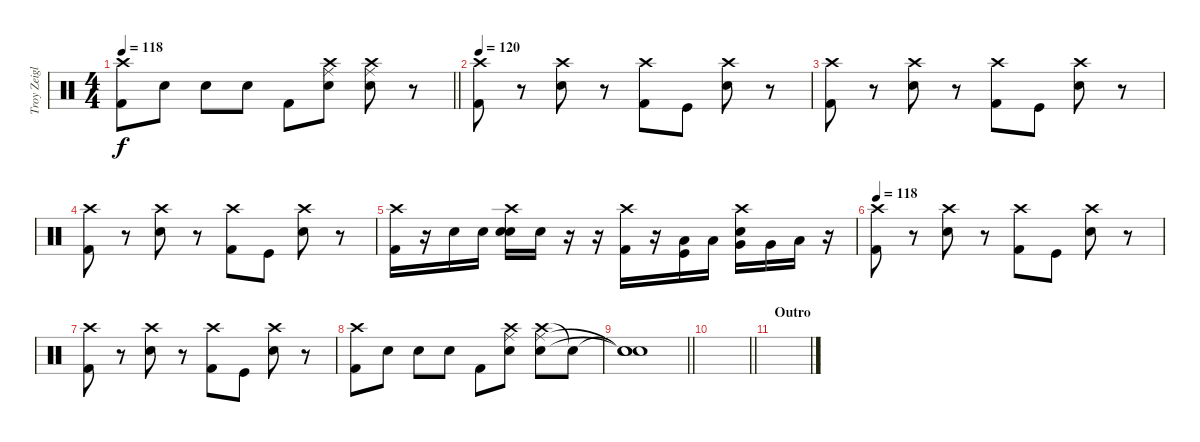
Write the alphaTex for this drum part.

\track ("Troy Zeigler (Drums)" "Troy Zeigl") {instrument percussion}
\staff {score}
\articulation defaults
\ts (4 4)
\tempo 118
\clef neutral
\barLineRight lightlight
\ks c
("Crash high (hit)" "Kick (hit) 2").8{dy f} "Snare (hit) 2".8 "Snare (hit) 2".8 "Snare (hit) 2".8 "Kick (hit) 2".8 ("Crash high (hit)" "Snare (hit) 2" "Ride (middle)").8 ("Crash high (hit)" "Snare (hit) 2" "Ride (middle)").8 r.8 |
\tempo 114
\tempo 120
("Crash high (hit)" "Kick (hit) 2").8 r.8 ("Crash high (hit)" "Snare (hit) 2").8 r.8 ("Crash high (hit)" "Kick (hit) 2").8 "Kick (hit)".8 ("Crash high (hit)" "Snare (hit) 2").8 r.8 |
("Crash high (hit)" "Kick (hit) 2").8 r.8 ("Crash high (hit)" "Snare (hit) 2").8 r.8 ("Crash high (hit)" "Kick (hit) 2").8 "Kick (hit)".8 ("Crash high (hit)" "Snare (hit) 2").8 r.8 |
("Crash high (hit)" "Kick (hit) 2").8 r.8 ("Crash high (hit)" "Snare (hit) 2").8 r.8 ("Crash high (hit)" "Kick (hit) 2").8 "Kick (hit)".8 ("Crash high (hit)" "Snare (hit) 2").8 r.8 |
("Crash high (hit)" "Kick (hit) 2").16 r.16 "Snare (hit) 2".16 "Snare (hit) 2".16 ("Crash high (hit)" "Snare (hit) 2" "Snare (hit) 2").16 "Snare (hit) 2".16 r.16 r.16 ("Crash high (hit)" "Kick (hit) 2").16 r.16 ("Kick (hit)" "Low Tom (hit)").16 "Low Tom (hit)".16 ("Crash high (hit)" "Snare (hit) 2" "Very Low Tom (hit)").16 "Very Low Tom (hit)".16 "Low Floor Tom (hit)".16 r.16 |
\tempo 118
("Crash high (hit)" "Kick (hit) 2").8 r.8 ("Crash high (hit)" "Snare (hit) 2").8 r.8 ("Crash high (hit)" "Kick (hit) 2").8 "Kick (hit)".8 ("Crash high (hit)" "Snare (hit) 2").8 r.8 |
("Crash high (hit)" "Kick (hit) 2").8 r.8 ("Crash high (hit)" "Snare (hit) 2").8 r.8 ("Crash high (hit)" "Kick (hit) 2").8 "Kick (hit)".8 ("Crash high (hit)" "Snare (hit) 2").8 r.8 |
("Crash high (hit)" "Kick (hit) 2").8 "Snare (hit) 2".8 "Snare (hit) 2".8 "Snare (hit) 2".8 "Kick (hit) 2".8 ("Crash high (hit)" "Snare (hit) 2" "Ride (middle)").8 ("Crash high (hit)" "Snare (hit) 2" "Ride (middle)").8 "Snare (hit)"{t}.8 |
\barLineRight lightlight
("Snare (hit)"{t} "Snare (hit)"{t} "Snare (hit)"{t}).1 |
\barLineRight lightlight
|
\section ("" "Outro")
